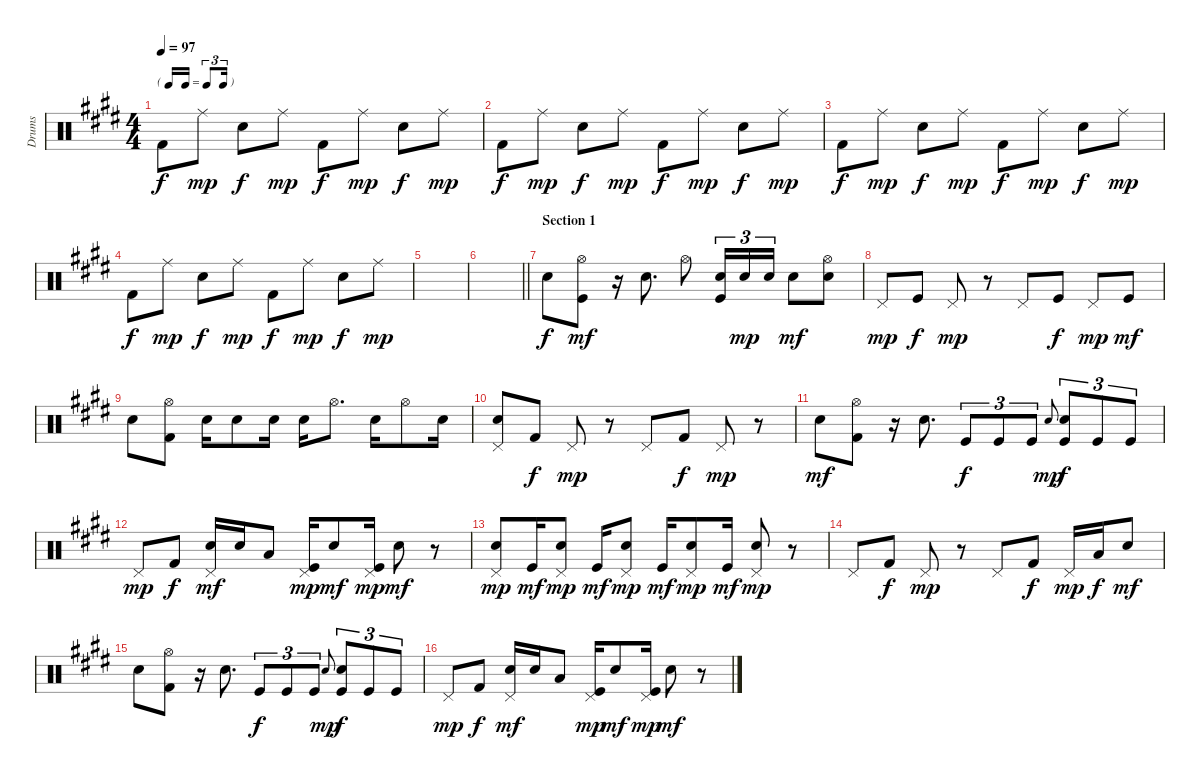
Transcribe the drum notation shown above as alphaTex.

\track ("Drums" "Drums") {instrument percussion}
\staff {score}
\articulation defaults
\ts (4 4)
\tf triplet16th
\tempo 97
\clef neutral
\ks e "Kick (hit) 2".8{dy f} "Ride (middle)".8{dy mp} "Snare (hit) 2".8{dy f} "Ride (middle)".8{dy mp} "Kick (hit) 2".8{dy f} "Ride (middle)".8{dy mp} "Snare (hit) 2".8{dy f} "Ride (middle)".8{dy mp}
|
\ks c#minor "Kick (hit) 2".8{dy f} "Ride (middle)".8{dy mp} "Snare (hit) 2".8{dy f} "Ride (middle)".8{dy mp} "Kick (hit) 2".8{dy f} "Ride (middle)".8{dy mp} "Snare (hit) 2".8{dy f} "Ride (middle)".8{dy mp}
|
\ks e "Kick (hit) 2".8{dy f} "Ride (middle)".8{dy mp} "Snare (hit) 2".8{dy f} "Ride (middle)".8{dy mp} "Kick (hit) 2".8{dy f} "Ride (middle)".8{dy mp} "Snare (hit) 2".8{dy f} "Ride (middle)".8{dy mp}
|
"Kick (hit) 2".8{dy f} "Ride (middle)".8{dy mp} "Snare (hit) 2".8{dy f} "Ride (middle)".8{dy mp} "Kick (hit) 2".8{dy f} "Ride (middle)".8{dy mp} "Snare (hit) 2".8{dy f} "Ride (middle)".8{dy mp} |
\ks c#minor
|
\barLineRight lightlight
|
\section ("" "Section 1")
"Snare (hit) 2".8{dy f} ("Hi-Hat (open)" "Kick (hit)").8{dy mf} r.16 "Snare (hit) 2".8{d} "Hi-Hat (open)".8 ("Snare (hit) 2" "Kick (hit)").16{tu (3 2)} "Snare (hit) 2".16{tu (3 2) dy mp} "Snare (hit) 2".16{tu (3 2)} "Snare (hit) 2".8{dy mf} ("Hi-Hat (open)" "Snare (hit) 2").8 |
\ks e "Pedal Hi-Hat (hit)".8{dy mp} "Kick (hit)".8{dy f} "Pedal Hi-Hat (hit)".8{dy mp}
r.8 "Pedal Hi-Hat (hit)".8 "Kick (hit)".8{dy f} "Pedal Hi-Hat (hit)".8{dy mp} "Kick (hit)".8{dy mf} |
\ks c#minor "Snare (hit) 2".8
("Hi-Hat (open)" "Kick (hit) 2").8 "Snare (hit) 2".16 "Snare (hit) 2".8 "Snare (hit) 2".16 "Snare (hit) 2".16 "Hi-Hat (open)".8{d} "Snare (hit) 2".16 "Hi-Hat (open)".8 "Snare (hit) 2".16 |
\ks e
("Pedal Hi-Hat (hit)" "Snare (hit) 2").8 "Kick (hit) 2".8{dy f} "Pedal Hi-Hat (hit)".8{dy mp} r.8 "Pedal Hi-Hat (hit)".8 "Kick (hit) 2".8{dy f} "Pedal Hi-Hat (hit)".8{dy mp} r.8 |
\ks c#minor "Snare (hit) 2".8{dy mf}
("Hi-Hat (open)" "Kick (hit) 2").8 r.16 "Snare (hit) 2".8{d} "Kick (hit)".8{tu (3 2) dy f} "Kick (hit)".8{tu (3 2)} "Kick (hit)".8{tu (3 2)} "Snare (hit) 2".8{gr onbeat dy mp} ("Snare (hit) 2" "Kick (hit)").8{tu (3 2) dy f} "Kick (hit)".8{tu (3 2)} "Kick (hit)".8{tu (3 2)} |
\ks e "Pedal Hi-Hat (hit)".8{dy mp} "Kick (hit) 2".8{dy f}
("Pedal Hi-Hat (hit)" "Electric Snare (hit)").16{dy mf} "Electric Snare (hit)".16 "Low Tom (hit)".8 ("Pedal Hi-Hat (hit)" "Kick (hit)").16{dy mp} "Snare (hit) 2".8{dy mf} ("Pedal Hi-Hat (hit)" "Kick (hit)").16{dy mp} "Snare (hit) 2".8{dy mf} r.8 |
\ks c#minor
("Pedal Hi-Hat (hit)" "Snare (hit) 2").8{dy mp} "Kick (hit)".16{dy mf} ("Pedal Hi-Hat (hit)" "Snare (hit) 2").8{dy mp} "Kick (hit)".16{dy mf} ("Pedal Hi-Hat (hit)" "Snare (hit) 2").8{dy mp} "Kick (hit)".16{dy mf} ("Pedal Hi-Hat (hit)" "Snare (hit) 2").8{dy mp} "Kick (hit)".16{dy mf} ("Pedal Hi-Hat (hit)" "Snare (hit) 2").8{dy mp} r.8 |
\ks e "Pedal Hi-Hat (hit)".8 "Kick (hit) 2".8{dy f} "Pedal Hi-Hat (hit)".8{dy mp}
r.8 "Pedal Hi-Hat (hit)".8 "Kick (hit) 2".8{dy f} "Pedal Hi-Hat (hit)".16{dy mp} "Low Tom (hit)".16{dy f} "Electric Snare (hit)".8{dy mf} |
\ks c#minor "Snare (hit) 2".8
("Hi-Hat (open)" "Kick (hit) 2").8 r.16 "Snare (hit) 2".8{d} "Kick (hit)".8{tu (3 2) dy f} "Kick (hit)".8{tu (3 2)} "Kick (hit)".8{tu (3 2)} "Snare (hit) 2".8{gr onbeat dy mp} ("Snare (hit) 2" "Kick (hit)").8{tu (3 2) dy f} "Kick (hit)".8{tu (3 2)} "Kick (hit)".8{tu (3 2)} |
\ks e "Pedal Hi-Hat (hit)".8{dy mp} "Kick (hit) 2".8{dy f}
("Pedal Hi-Hat (hit)" "Electric Snare (hit)").16{dy mf} "Electric Snare (hit)".16 "Low Tom (hit)".8 ("Pedal Hi-Hat (hit)" "Kick (hit)").16{dy mp} "Snare (hit) 2".8{dy mf} ("Pedal Hi-Hat (hit)" "Kick (hit)").16{dy mp} "Snare (hit) 2".8{dy mf} r.8
